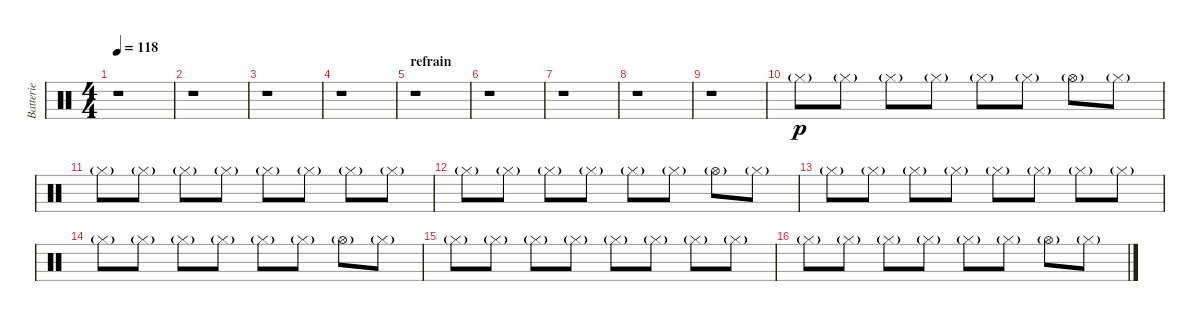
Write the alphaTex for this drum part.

\track ("Batterie" "Batterie") {instrument percussion}
\staff {score}
\articulation defaults
\ts (4 4)
\tempo 118
\clef neutral
\ks c
r.1{dy p} |
r.1 |
r.1 |
r.1 |
\section ("" "refrain")
r.1 |
r.1 |
r.1 |
r.1 |
r.1 |
"Hi-Hat (closed)"{g}.8 "Hi-Hat (closed)"{g}.8 "Hi-Hat (closed)"{g}.8 "Hi-Hat (closed)"{g}.8 "Hi-Hat (closed)"{g}.8 "Hi-Hat (closed)"{g}.8 "Hi-Hat (open)"{g}.8 "Hi-Hat (closed)"{g}.8 |
"Hi-Hat (closed)"{g}.8 "Hi-Hat (closed)"{g}.8 "Hi-Hat (closed)"{g}.8 "Hi-Hat (closed)"{g}.8 "Hi-Hat (closed)"{g}.8 "Hi-Hat (closed)"{g}.8 "Hi-Hat (closed)"{g}.8 "Hi-Hat (closed)"{g}.8 |
"Hi-Hat (closed)"{g}.8 "Hi-Hat (closed)"{g}.8 "Hi-Hat (closed)"{g}.8 "Hi-Hat (closed)"{g}.8 "Hi-Hat (closed)"{g}.8 "Hi-Hat (closed)"{g}.8 "Hi-Hat (open)"{g}.8 "Hi-Hat (closed)"{g}.8 |
"Hi-Hat (closed)"{g}.8 "Hi-Hat (closed)"{g}.8 "Hi-Hat (closed)"{g}.8 "Hi-Hat (closed)"{g}.8 "Hi-Hat (closed)"{g}.8 "Hi-Hat (closed)"{g}.8 "Hi-Hat (closed)"{g}.8 "Hi-Hat (closed)"{g}.8 |
"Hi-Hat (closed)"{g}.8 "Hi-Hat (closed)"{g}.8 "Hi-Hat (closed)"{g}.8 "Hi-Hat (closed)"{g}.8 "Hi-Hat (closed)"{g}.8 "Hi-Hat (closed)"{g}.8 "Hi-Hat (open)"{g}.8 "Hi-Hat (closed)"{g}.8 |
"Hi-Hat (closed)"{g}.8 "Hi-Hat (closed)"{g}.8 "Hi-Hat (closed)"{g}.8 "Hi-Hat (closed)"{g}.8 "Hi-Hat (closed)"{g}.8 "Hi-Hat (closed)"{g}.8 "Hi-Hat (closed)"{g}.8 "Hi-Hat (closed)"{g}.8 |
"Hi-Hat (closed)"{g}.8 "Hi-Hat (closed)"{g}.8 "Hi-Hat (closed)"{g}.8 "Hi-Hat (closed)"{g}.8 "Hi-Hat (closed)"{g}.8 "Hi-Hat (closed)"{g}.8 "Hi-Hat (open)"{g}.8 "Hi-Hat (closed)"{g}.8
